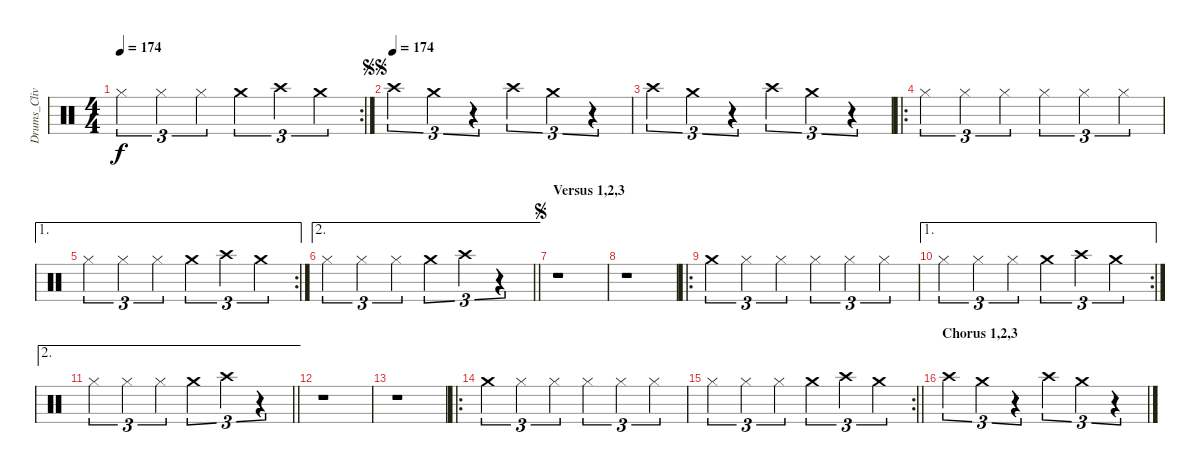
\track ("Drums_CliveBurr" "Drums_Cliv") {instrument percussion}
\staff {score}
\articulation defaults
\rc 2
\ts (4 4)
\tempo 174
\clef neutral
\ks c "Hi-Hat (closed)".4{tu (3 2) dy f} "Hi-Hat (closed)".4{tu (3 2)} "Hi-Hat (closed)".4{tu (3 2)} "Crash medium (hit)".4{tu (3 2)} "Crash high (hit)".4{tu (3 2)} "Crash medium (hit)".4{tu (3 2)}
|
\jump segnosegno
\tempo (174)
"Crash high (hit)".4{tu (3 2)} "Crash medium (hit)".4{tu (3 2)} r.4{tu (3 2)} "Crash high (hit)".4{tu (3 2)} "Crash medium (hit)".4{tu (3 2)} r.4{tu (3 2)} |
"Crash high (hit)".4{tu (3 2)} "Crash medium (hit)".4{tu (3 2)} r.4{tu (3 2)} "Crash high (hit)".4{tu (3 2)} "Crash medium (hit)".4{tu (3 2)} r.4{tu (3 2)} |
\ro "Hi-Hat (closed)".4{tu (3 2)} "Hi-Hat (closed)".4{tu (3 2)} "Hi-Hat (closed)".4{tu (3 2)} "Hi-Hat (closed)".4{tu (3 2)} "Hi-Hat (closed)".4{tu (3 2)} "Hi-Hat (closed)".4{tu (3 2)}
|
\ae 1
\rc 2 "Hi-Hat (closed)".4{tu (3 2)} "Hi-Hat (closed)".4{tu (3 2)} "Hi-Hat (closed)".4{tu (3 2)} "Crash medium (hit)".4{tu (3 2)} "Crash high (hit)".4{tu (3 2)} "Crash medium (hit)".4{tu (3 2)}
|
\ae 2
\barLineRight lightlight "Hi-Hat (closed)".4{tu (3 2)} "Hi-Hat (closed)".4{tu (3 2)} "Hi-Hat (closed)".4{tu (3 2)} "Crash medium (hit)".4{tu (3 2)} "Crash high (hit)".4{tu (3 2)}
r.4{tu (3 2)} |
\section ("" "Versus 1,2,3")
\jump segno
r.1 |
r.1 |
\ro "Crash medium (hit)".4{tu (3 2)} "Hi-Hat (closed)".4{tu (3 2)} "Hi-Hat (closed)".4{tu (3 2)} "Hi-Hat (closed)".4{tu (3 2)} "Hi-Hat (closed)".4{tu (3 2)} "Hi-Hat (closed)".4{tu (3 2)}
|
\ae 1
\rc 2 "Hi-Hat (closed)".4{tu (3 2)} "Hi-Hat (closed)".4{tu (3 2)} "Hi-Hat (closed)".4{tu (3 2)} "Crash medium (hit)".4{tu (3 2)} "Crash high (hit)".4{tu (3 2)} "Crash medium (hit)".4{tu (3 2)}
|
\ae 2
\barLineRight lightlight "Hi-Hat (closed)".4{tu (3 2)} "Hi-Hat (closed)".4{tu (3 2)} "Hi-Hat (closed)".4{tu (3 2)} "Crash medium (hit)".4{tu (3 2)} "Crash high (hit)".4{tu (3 2)}
r.4{tu (3 2)} |
r.1 |
r.1 |
\ro "Crash medium (hit)".4{tu (3 2)} "Hi-Hat (closed)".4{tu (3 2)} "Hi-Hat (closed)".4{tu (3 2)} "Hi-Hat (closed)".4{tu (3 2)} "Hi-Hat (closed)".4{tu (3 2)} "Hi-Hat (closed)".4{tu (3 2)}
|
\rc 2
\barLineRight lightlight "Hi-Hat (closed)".4{tu (3 2)} "Hi-Hat (closed)".4{tu (3 2)} "Hi-Hat (closed)".4{tu (3 2)} "Crash medium (hit)".4{tu (3 2)} "Crash high (hit)".4{tu (3 2)} "Crash medium (hit)".4{tu (3 2)}
|
\section ("" "Chorus 1,2,3")
"Crash high (hit)".4{tu (3 2)} "Crash medium (hit)".4{tu (3 2)} r.4{tu (3 2)} "Crash high (hit)".4{tu (3 2)} "Crash medium (hit)".4{tu (3 2)} r.4{tu (3 2)}
